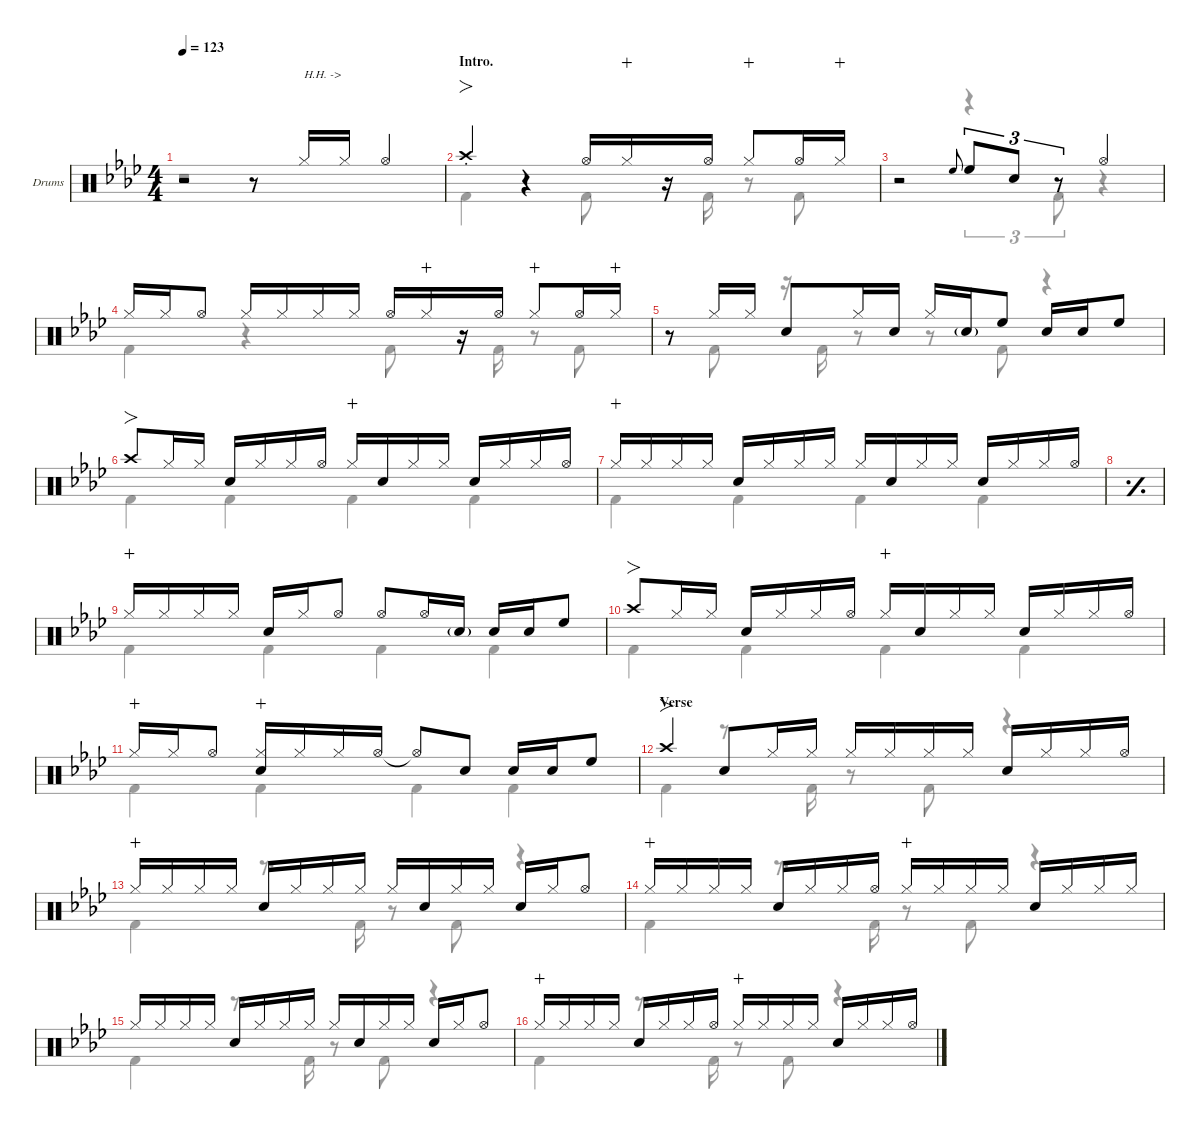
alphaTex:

\defaultSystemsLayout 4
\hideDynamics
\bracketExtendMode nobrackets
\firstSystemTrackNameOrientation horizontal
\track ("Drums" "Drums") {defaultSystemsLayout 4 instrument percussion}
\staff {score}
\articulation defaults
\voice
\ts (4 4)
\tempo 123
\clef neutral
\ks ab
r.2{dy f beam Up} r.8{beam Up} "Hi-Hat (closed)"{acc forcenatural}.16{txt "H.H. ->" beam Up} "Hi-Hat (closed)"{acc forcenatural}.16{dy mf beam Up} "Hi-Hat (open)"{acc forcenatural}.4{dy f beam Up} |
\section ("" "Intro.")
\scale
0.266618 "Crash high (hit)"{st acc forcenatural}.4{fo beam Up} r.4{beam Up} "Hi-Hat (open)"{acc forcenatural}.16{beam Up} "Hi-Hat (closed)"{acc forcenatural}.16{dy mp wahc beam Up} r.16{beam Up} "Hi-Hat (open)"{acc forcenatural}.16{dy f beam Up} "Hi-Hat (closed)"{acc forcenatural}.8{dy mp wahc beam Up} "Hi-Hat (open)"{acc forcenatural}.16{dy f beam Up} "Hi-Hat (closed)"{acc forcenatural}.16{dy mp wahc beam Up} |
\scale
0.244461 r.2{beam Up} "High Floor Tom (hit)"{acc forcenatural}.8{gr onbeat dy f beam Up} "High Floor Tom (hit)"{acc forcenatural}.8{tu (3 2) dy mp beam Up} "Snare (hit) 2"{acc forcenatural}.8{tu (3 2) beam Up} r.8{tu (3 2) beam Up} "Hi-Hat (open)"{acc forcenatural}.4{dy f beam Up} |
\scale
0.244461 "Hi-Hat (closed)"{acc forcenatural}.16{beam Up} "Hi-Hat (closed)"{acc forcenatural}.16{dy mf beam Up} "Hi-Hat (open)"{acc forcenatural}.8{dy f beam Up} "Hi-Hat (closed)"{acc forcenatural}.16{beam Up} "Hi-Hat (closed)"{acc forcenatural}.16{dy mp beam Up} "Hi-Hat (closed)"{acc forcenatural}.16{dy mf beam Up} "Hi-Hat (closed)"{acc forcenatural}.16{dy mp beam Up} "Hi-Hat (open)"{acc forcenatural}.16{dy f beam Up} "Hi-Hat (closed)"{acc forcenatural}.16{dy mp wahc beam Up} r.16{beam Up} "Hi-Hat (open)"{acc forcenatural}.16{dy f beam Up} "Hi-Hat (closed)"{acc forcenatural}.8{dy mp wahc beam Up} "Hi-Hat (open)"{acc forcenatural}.16{dy f beam Up} "Hi-Hat (closed)"{acc forcenatural}.16{dy mp wahc beam Up} |
\scale
0.244461 r.8{beam Up} "Hi-Hat (closed)"{acc forcenatural}.16{dy f beam Up} "Hi-Hat (closed)"{acc forcenatural}.16{beam Up} "Snare (hit) 2"{acc forcenatural}.8{beam Up} "Hi-Hat (closed)"{acc forcenatural}.16{beam Up} "Snare (hit) 2"{acc forcenatural}.16{beam Up} "Hi-Hat (closed)"{acc forcenatural}.16{beam Up} "Snare (hit) 2"{g acc forcenatural}.16{dy mp beam Up} "High Floor Tom (hit)"{acc forcenatural}.8{dy f beam Up} "Snare (hit) 2"{acc forcenatural}.16{beam Up} "Snare (hit) 2"{acc forcenatural}.16{dy mf beam Up} "High Floor Tom (hit)"{acc forcenatural}.8{dy f beam Up} |
\scale
0.266618 "Crash high (hit)"{acc forcenatural}.8{fo beam Up} "Hi-Hat (closed)"{acc forcenatural}.16{beam Up} "Hi-Hat (closed)"{acc forcenatural}.16{dy mp beam Up} "Snare (hit) 2"{acc forcenatural}.16{dy f beam Up} "Hi-Hat (closed)"{acc forcenatural}.16{dy mp beam Up} "Hi-Hat (closed)"{acc forcenatural}.16{dy f beam Up} "Hi-Hat (open)"{acc forcenatural}.16{beam Up} "Hi-Hat (closed)"{acc forcenatural}.16{dy mp wahc beam Up} "Snare (hit) 2"{acc forcenatural}.16{dy f beam Up} "Hi-Hat (closed)"{acc forcenatural}.16{beam Up} "Hi-Hat (closed)"{acc forcenatural}.16{dy mp beam Up} "Snare (hit) 2"{acc forcenatural}.16{dy f beam Up} "Hi-Hat (closed)"{acc forcenatural}.16{dy mp beam Up} "Hi-Hat (closed)"{acc forcenatural}.16{dy f beam Up} "Hi-Hat (open)"{acc forcenatural}.16{beam Up} |
\scale
0.244461 "Hi-Hat (closed)"{acc forcenatural}.16{dy mp wahc beam Up} "Hi-Hat (closed)"{acc forcenatural}.16{beam Up} "Hi-Hat (closed)"{acc forcenatural}.16{dy f beam Up} "Hi-Hat (closed)"{acc forcenatural}.16{dy mp beam Up} "Snare (hit) 2"{acc forcenatural}.16{dy f beam Up} "Hi-Hat (closed)"{acc forcenatural}.16{dy mp beam Up} "Hi-Hat (closed)"{acc forcenatural}.16{dy f beam Up} "Hi-Hat (closed)"{acc forcenatural}.16{dy mp beam Up} "Hi-Hat (closed)"{acc forcenatural}.16{dy f beam Up} "Snare (hit) 2"{acc forcenatural}.16{beam Up} "Hi-Hat (closed)"{acc forcenatural}.16{beam Up} "Hi-Hat (closed)"{acc forcenatural}.16{dy mp beam Up} "Snare (hit) 2"{acc forcenatural}.16{dy f beam Up} "Hi-Hat (closed)"{acc forcenatural}.16{dy mp beam Up} "Hi-Hat (closed)"{acc forcenatural}.16{dy f beam Up} "Hi-Hat (open)"{acc forcenatural}.16{beam Up} |
\simile simple
\scale
0.24446 |
\simile none
\scale
0.244461 "Hi-Hat (closed)"{acc forcenatural}.16{dy mp wahc beam Up} "Hi-Hat (closed)"{acc forcenatural}.16{beam Up} "Hi-Hat (closed)"{acc forcenatural}.16{dy f beam Up} "Hi-Hat (closed)"{acc forcenatural}.16{dy mp beam Up} "Snare (hit) 2"{acc forcenatural}.16{dy f beam Up} "Hi-Hat (closed)"{acc forcenatural}.16{dy mp beam Up} "Hi-Hat (open)"{acc forcenatural}.8{beam Up} "Hi-Hat (open)"{acc forcenatural}.8{dy mf beam Up} "Hi-Hat (open)"{acc forcenatural}.16{beam Up} "Snare (hit) 2"{g acc forcenatural}.16{dy mp beam Up} "Snare (hit) 2"{acc forcenatural}.16{dy f beam Up} "Snare (hit) 2"{acc forcenatural}.16{dy mf beam Up} "High Floor Tom (hit)"{acc forcenatural}.8{dy f beam Up} |
\scale
0.511079 "Crash high (hit)"{acc forcenatural}.8{fo beam Up} "Hi-Hat (closed)"{acc forcenatural}.16{beam Up} "Hi-Hat (closed)"{acc forcenatural}.16{dy mp beam Up} "Snare (hit) 2"{acc forcenatural}.16{dy f beam Up} "Hi-Hat (closed)"{acc forcenatural}.16{dy mp beam Up} "Hi-Hat (closed)"{acc forcenatural}.16{dy f beam Up} "Hi-Hat (open)"{acc forcenatural}.16{beam Up} "Hi-Hat (closed)"{acc forcenatural}.16{dy mp wahc beam Up} "Snare (hit) 2"{acc forcenatural}.16{dy f beam Up} "Hi-Hat (closed)"{acc forcenatural}.16{beam Up} "Hi-Hat (closed)"{acc forcenatural}.16{dy mp beam Up} "Snare (hit) 2"{acc forcenatural}.16{dy f beam Up} "Hi-Hat (closed)"{acc forcenatural}.16{dy mp beam Up} "Hi-Hat (closed)"{acc forcenatural}.16{dy f beam Up} "Hi-Hat (open)"{acc forcenatural}.16{beam Up} |
\scale
0.488921 "Hi-Hat (closed)"{acc forcenatural}.16{dy mp wahc beam Up} "Hi-Hat (closed)"{acc forcenatural}.16{beam Up} "Hi-Hat (open)"{acc forcenatural}.8{dy f beam Up} ("Snare (hit) 2"{acc forcenatural} "Hi-Hat (closed)"{acc forcenatural}).16{wahc beam Up} "Hi-Hat (closed)"{acc forcenatural}.16{dy mp beam Up} "Hi-Hat (closed)"{acc forcenatural}.16{dy f beam Up} "Hi-Hat (open)"{acc forcenatural}.16{beam Up} "Hi-Hat (open)"{t acc forcenatural}.8{beam Up} "Snare (hit) 2"{acc forcenatural}.8{beam Up} "Snare (hit) 2"{acc forcenatural}.16{beam Up} "Snare (hit) 2"{acc forcenatural}.16{dy mf beam Up} "High Floor Tom (hit)"{acc forcenatural}.8{dy f beam Up} |
\section ("" "Verse")
\scale
0.266618 "Crash high (hit)"{acc forcenatural}.4{fo beam Up} "Snare (hit) 2"{acc forcenatural}.8{beam Up} "Hi-Hat (closed)"{acc forcenatural}.16{beam Up} "Hi-Hat (closed)"{acc forcenatural}.16{beam Up} "Hi-Hat (closed)"{acc forcenatural}.16{beam Up} "Hi-Hat (closed)"{acc forcenatural}.16{dy mp beam Up} "Hi-Hat (closed)"{acc forcenatural}.16{dy f beam Up} "Hi-Hat (closed)"{acc forcenatural}.16{dy mp beam Up} "Snare (hit) 2"{acc forcenatural}.16{dy f beam Up} "Hi-Hat (closed)"{acc forcenatural}.16{dy mp beam Up} "Hi-Hat (closed)"{acc forcenatural}.16{dy f beam Up} "Hi-Hat (open)"{acc forcenatural}.16{beam Up} |
\scale
0.244461 "Hi-Hat (closed)"{acc forcenatural}.16{dy mp wahc beam Up} "Hi-Hat (closed)"{acc forcenatural}.16{beam Up} "Hi-Hat (closed)"{acc forcenatural}.16{dy f beam Up} "Hi-Hat (closed)"{acc forcenatural}.16{dy mp beam Up} "Snare (hit) 2"{acc forcenatural}.16{dy f beam Up} "Hi-Hat (closed)"{acc forcenatural}.16{dy mp beam Up} "Hi-Hat (closed)"{acc forcenatural}.16{dy f beam Up} "Hi-Hat (closed)"{acc forcenatural}.16{dy mp beam Up} "Hi-Hat (closed)"{acc forcenatural}.16{dy f beam Up} "Snare (hit) 2"{acc forcenatural}.16{beam Up} "Hi-Hat (closed)"{acc forcenatural}.16{beam Up} "Hi-Hat (closed)"{acc forcenatural}.16{dy mp beam Up} "Snare (hit) 2"{acc forcenatural}.16{dy f beam Up} "Hi-Hat (closed)"{acc forcenatural}.16{dy mp beam Up} "Hi-Hat (open)"{acc forcenatural}.8{dy f beam Up} |
\scale
0.24446 "Hi-Hat (closed)"{acc forcenatural}.16{dy mp wahc beam Up} "Hi-Hat (closed)"{acc forcenatural}.16{beam Up} "Hi-Hat (closed)"{acc forcenatural}.16{dy f beam Up} "Hi-Hat (closed)"{acc forcenatural}.16{dy mp beam Up} "Snare (hit) 2"{acc forcenatural}.16{dy f beam Up} "Hi-Hat (closed)"{acc forcenatural}.16{dy mp beam Up} "Hi-Hat (closed)"{acc forcenatural}.16{dy f beam Up} "Hi-Hat (open)"{acc forcenatural}.16{beam Up} "Hi-Hat (closed)"{acc forcenatural}.16{dy mp wahc beam Up} "Hi-Hat (closed)"{acc forcenatural}.16{beam Up} "Hi-Hat (closed)"{acc forcenatural}.16{dy f beam Up} "Hi-Hat (closed)"{acc forcenatural}.16{dy mp beam Up} "Snare (hit) 2"{acc forcenatural}.16{dy f beam Up} "Hi-Hat (closed)"{acc forcenatural}.16{dy mp beam Up} "Hi-Hat (closed)"{acc forcenatural}.16{dy f beam Up} "Hi-Hat (closed)"{acc forcenatural}.16{dy mp beam Up} |
\scale
0.244461 "Hi-Hat (closed)"{acc forcenatural}.16{dy f beam Up} "Hi-Hat (closed)"{acc forcenatural}.16{dy mp beam Up} "Hi-Hat (closed)"{acc forcenatural}.16{dy f beam Up} "Hi-Hat (closed)"{acc forcenatural}.16{dy mp beam Up} "Snare (hit) 2"{acc forcenatural}.16{dy f beam Up} "Hi-Hat (closed)"{acc forcenatural}.16{dy mp beam Up} "Hi-Hat (closed)"{acc forcenatural}.16{dy f beam Up} "Hi-Hat (closed)"{acc forcenatural}.16{dy mp beam Up} "Hi-Hat (closed)"{acc forcenatural}.16{dy f beam Up} "Snare (hit) 2"{acc forcenatural}.16{beam Up} "Hi-Hat (closed)"{acc forcenatural}.16{beam Up} "Hi-Hat (closed)"{acc forcenatural}.16{dy mp beam Up} "Snare (hit) 2"{acc forcenatural}.16{dy f beam Up} "Hi-Hat (closed)"{acc forcenatural}.16{dy mp beam Up} "Hi-Hat (open)"{acc forcenatural}.8{dy f beam Up} |
\scale
0.266618 "Hi-Hat (closed)"{acc forcenatural}.16{dy mp wahc beam Up} "Hi-Hat (closed)"{acc forcenatural}.16{beam Up} "Hi-Hat (closed)"{acc forcenatural}.16{dy f beam Up} "Hi-Hat (closed)"{acc forcenatural}.16{dy mp beam Up} "Snare (hit) 2"{acc forcenatural}.16{dy f beam Up} "Hi-Hat (closed)"{acc forcenatural}.16{dy mp beam Up} "Hi-Hat (closed)"{acc forcenatural}.16{dy f beam Up} "Hi-Hat (open)"{acc forcenatural}.16{beam Up} "Hi-Hat (closed)"{acc forcenatural}.16{dy mp wahc beam Up} "Hi-Hat (closed)"{acc forcenatural}.16{beam Up} "Hi-Hat (closed)"{acc forcenatural}.16{dy f beam Up} "Hi-Hat (closed)"{acc forcenatural}.16{dy mp beam Up} "Snare (hit) 2"{acc forcenatural}.16{dy f beam Up} "Hi-Hat (closed)"{acc forcenatural}.16{dy mp beam Up} "Hi-Hat (closed)"{acc forcenatural}.16{dy f beam Up} "Hi-Hat (open)"{acc forcenatural}.16{beam Up}
\voice
\clef neutral
\ottava regular
\simile none
\ks ab
r.1{dy f beam Down} |
\scale
0.266618 "Kick (hit) 2"{acc forcenatural}.4{beam Down} r.4{beam Down} "Kick (hit) 2"{acc forcenatural}.8{beam Down beam split} r.16{beam Down beam split} "Kick (hit) 2"{acc forcenatural}.16{beam Down} r.8{beam Down} "Kick (hit) 2"{acc forcenatural}.8{beam Down} |
\scale
0.244461 r.2{beam Down} r.4{tu (3 2) beam Down} "Kick (hit) 2"{acc forcenatural}.8{tu (3 2) beam Down} r.4{beam Down} |
\scale
0.244461 "Kick (hit) 2"{acc forcenatural}.4{beam Down} r.4{beam Down} "Kick (hit) 2"{acc forcenatural}.8{beam Down beam split} r.16{beam Down beam split} "Kick (hit) 2"{acc forcenatural}.16{beam Down} r.8{beam Down} "Kick (hit) 2"{acc forcenatural}.8{beam Down} |
\scale
0.244461 r.8{beam Down} "Kick (hit) 2"{acc forcenatural}.8{beam Down} r.16{beam Down} "Kick (hit) 2"{acc forcenatural}.16{beam Down} r.8{beam Down} r.8{beam Down} "Kick (hit) 2"{acc forcenatural}.8{beam Down} r.4{beam Down} |
\scale
0.266618 "Kick (hit) 2"{acc forcenatural}.4{beam Down} "Kick (hit) 2"{acc forcenatural}.4{beam Down} "Kick (hit) 2"{acc forcenatural}.4{beam Down} "Kick (hit) 2"{acc forcenatural}.4{beam Down} |
\scale
0.244461 "Kick (hit) 2"{acc forcenatural}.4{beam Down} "Kick (hit) 2"{acc forcenatural}.4{beam Down} "Kick (hit) 2"{acc forcenatural}.4{beam Down} "Kick (hit) 2"{acc forcenatural}.4{beam Down} |
\simile simple
\scale
0.24446 |
\simile none
\scale
0.244461 "Kick (hit) 2"{acc forcenatural}.4{beam Down} "Kick (hit) 2"{acc forcenatural}.4{beam Down} "Kick (hit) 2"{acc forcenatural}.4{beam Down} "Kick (hit) 2"{acc forcenatural}.4{beam Down} |
\scale
0.511079 "Kick (hit) 2"{acc forcenatural}.4{beam Down} "Kick (hit) 2"{acc forcenatural}.4{beam Down} "Kick (hit) 2"{acc forcenatural}.4{beam Down} "Kick (hit) 2"{acc forcenatural}.4{beam Down} |
\scale
0.488921 "Kick (hit) 2"{acc forcenatural}.4{beam Down} "Kick (hit) 2"{acc forcenatural}.4{beam Down} "Kick (hit) 2"{acc forcenatural}.4{beam Down} "Kick (hit) 2"{acc forcenatural}.4{beam Down} |
\scale
0.266618 "Kick (hit) 2"{acc forcenatural}.4{beam Down} r.8{d beam Down} "Kick (hit) 2"{acc forcenatural}.16{beam Down} r.8{beam Down} "Kick (hit) 2"{acc forcenatural}.8{beam Down} r.4{beam Down} |
\scale
0.244461 "Kick (hit) 2"{acc forcenatural}.4{beam Down} r.8{d beam Down} "Kick (hit) 2"{acc forcenatural}.16{beam Down} r.8{beam Down} "Kick (hit) 2"{acc forcenatural}.8{beam Down} r.4{beam Down} |
\scale
0.24446 "Kick (hit) 2"{acc forcenatural}.4{beam Down} r.8{d beam Down} "Kick (hit) 2"{acc forcenatural}.16{beam Down} r.8{beam Down} "Kick (hit) 2"{acc forcenatural}.8{beam Down} r.4{beam Down} |
\scale
0.244461 "Kick (hit) 2"{acc forcenatural}.4{beam Down} r.8{d beam Down} "Kick (hit) 2"{acc forcenatural}.16{beam Down} r.8{beam Down} "Kick (hit) 2"{acc forcenatural}.8{beam Down} r.4{beam Down} |
\scale
0.266618 "Kick (hit) 2"{acc forcenatural}.4{beam Down} r.8{d beam Down} "Kick (hit) 2"{acc forcenatural}.16{beam Down} r.8{beam Down} "Kick (hit) 2"{acc forcenatural}.8{beam Down} r.4{beam Down}
